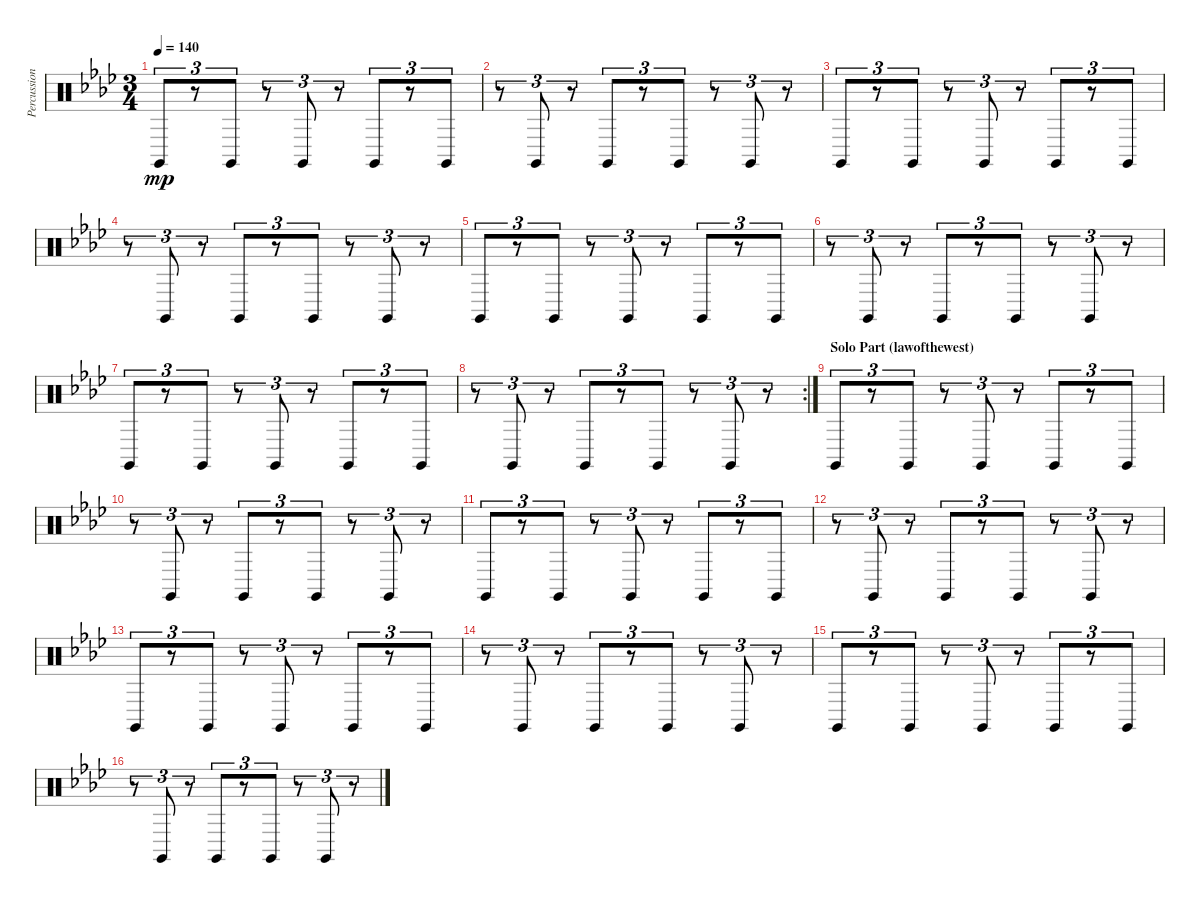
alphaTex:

\track ("Percussion" "Percussion") {instrument percussion}
\staff {score}
\articulation defaults
\ts (3 4)
\tempo 140
\clef neutral
\ks fminor "Claves (hit)".8{tu (3 2) dy mp}
r.8{tu (3 2)} "Claves (hit)".8{tu (3 2)} r.8{tu (3 2)} "Claves (hit)".8{tu (3 2)} r.8{tu (3 2)} "Claves (hit)".8{tu (3 2)} r.8{tu (3 2)} "Claves (hit)".8{tu (3 2)} |
r.8{tu (3 2)} "Claves (hit)".8{tu (3 2)} r.8{tu (3 2)} "Claves (hit)".8{tu (3 2)} r.8{tu (3 2)} "Claves (hit)".8{tu (3 2)} r.8{tu (3 2)} "Claves (hit)".8{tu (3 2)} r.8{tu (3 2)} |
"Claves (hit)".8{tu (3 2)} r.8{tu (3 2)} "Claves (hit)".8{tu (3 2)} r.8{tu (3 2)} "Claves (hit)".8{tu (3 2)} r.8{tu (3 2)} "Claves (hit)".8{tu (3 2)} r.8{tu (3 2)} "Claves (hit)".8{tu (3 2)} |
r.8{tu (3 2)} "Claves (hit)".8{tu (3 2)} r.8{tu (3 2)} "Claves (hit)".8{tu (3 2)} r.8{tu (3 2)} "Claves (hit)".8{tu (3 2)} r.8{tu (3 2)} "Claves (hit)".8{tu (3 2)} r.8{tu (3 2)} |
"Claves (hit)".8{tu (3 2)} r.8{tu (3 2)} "Claves (hit)".8{tu (3 2)} r.8{tu (3 2)} "Claves (hit)".8{tu (3 2)} r.8{tu (3 2)} "Claves (hit)".8{tu (3 2)} r.8{tu (3 2)} "Claves (hit)".8{tu (3 2)} |
r.8{tu (3 2)} "Claves (hit)".8{tu (3 2)} r.8{tu (3 2)} "Claves (hit)".8{tu (3 2)} r.8{tu (3 2)} "Claves (hit)".8{tu (3 2)} r.8{tu (3 2)} "Claves (hit)".8{tu (3 2)} r.8{tu (3 2)} |
"Claves (hit)".8{tu (3 2)} r.8{tu (3 2)} "Claves (hit)".8{tu (3 2)} r.8{tu (3 2)} "Claves (hit)".8{tu (3 2)} r.8{tu (3 2)} "Claves (hit)".8{tu (3 2)} r.8{tu (3 2)} "Claves (hit)".8{tu (3 2)} |
\rc 2
r.8{tu (3 2)} "Claves (hit)".8{tu (3 2)} r.8{tu (3 2)} "Claves (hit)".8{tu (3 2)} r.8{tu (3 2)} "Claves (hit)".8{tu (3 2)} r.8{tu (3 2)} "Claves (hit)".8{tu (3 2)} r.8{tu (3 2)} |
\section ("" "Solo Part (lawofthewest)")
"Claves (hit)".8{tu (3 2)} r.8{tu (3 2)} "Claves (hit)".8{tu (3 2)} r.8{tu (3 2)} "Claves (hit)".8{tu (3 2)} r.8{tu (3 2)} "Claves (hit)".8{tu (3 2)} r.8{tu (3 2)} "Claves (hit)".8{tu (3 2)} |
r.8{tu (3 2)} "Claves (hit)".8{tu (3 2)} r.8{tu (3 2)} "Claves (hit)".8{tu (3 2)} r.8{tu (3 2)} "Claves (hit)".8{tu (3 2)} r.8{tu (3 2)} "Claves (hit)".8{tu (3 2)} r.8{tu (3 2)} |
"Claves (hit)".8{tu (3 2)} r.8{tu (3 2)} "Claves (hit)".8{tu (3 2)} r.8{tu (3 2)} "Claves (hit)".8{tu (3 2)} r.8{tu (3 2)} "Claves (hit)".8{tu (3 2)} r.8{tu (3 2)} "Claves (hit)".8{tu (3 2)} |
r.8{tu (3 2)} "Claves (hit)".8{tu (3 2)} r.8{tu (3 2)} "Claves (hit)".8{tu (3 2)} r.8{tu (3 2)} "Claves (hit)".8{tu (3 2)} r.8{tu (3 2)} "Claves (hit)".8{tu (3 2)} r.8{tu (3 2)} |
"Claves (hit)".8{tu (3 2)} r.8{tu (3 2)} "Claves (hit)".8{tu (3 2)} r.8{tu (3 2)} "Claves (hit)".8{tu (3 2)} r.8{tu (3 2)} "Claves (hit)".8{tu (3 2)} r.8{tu (3 2)} "Claves (hit)".8{tu (3 2)} |
r.8{tu (3 2)} "Claves (hit)".8{tu (3 2)} r.8{tu (3 2)} "Claves (hit)".8{tu (3 2)} r.8{tu (3 2)} "Claves (hit)".8{tu (3 2)} r.8{tu (3 2)} "Claves (hit)".8{tu (3 2)} r.8{tu (3 2)} |
"Claves (hit)".8{tu (3 2)} r.8{tu (3 2)} "Claves (hit)".8{tu (3 2)} r.8{tu (3 2)} "Claves (hit)".8{tu (3 2)} r.8{tu (3 2)} "Claves (hit)".8{tu (3 2)} r.8{tu (3 2)} "Claves (hit)".8{tu (3 2)} |
r.8{tu (3 2)} "Claves (hit)".8{tu (3 2)} r.8{tu (3 2)} "Claves (hit)".8{tu (3 2)} r.8{tu (3 2)} "Claves (hit)".8{tu (3 2)} r.8{tu (3 2)} "Claves (hit)".8{tu (3 2)} r.8{tu (3 2)}
